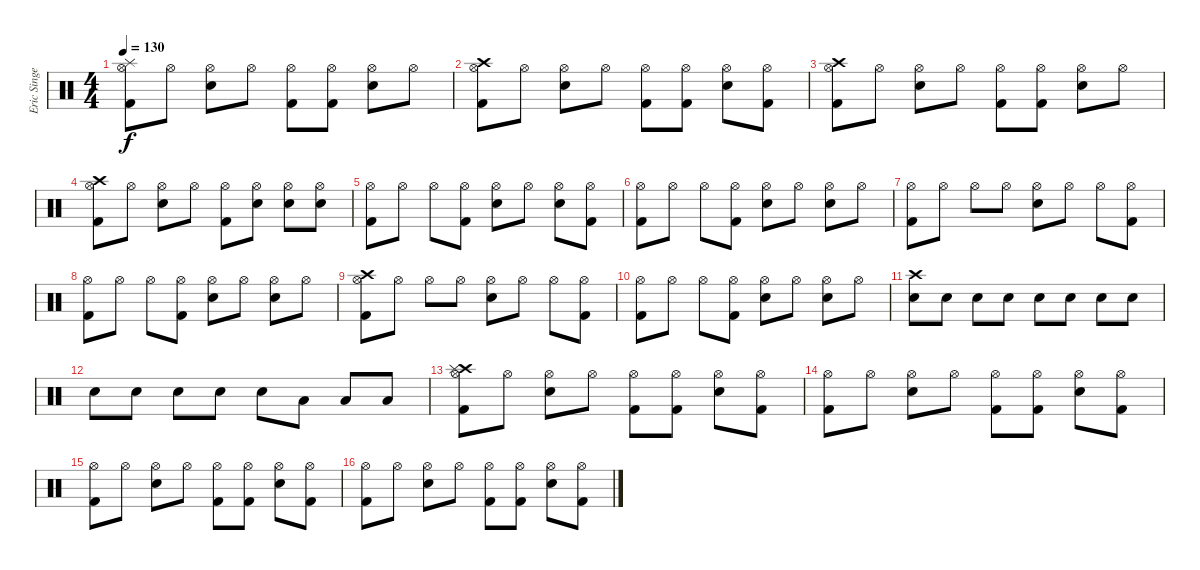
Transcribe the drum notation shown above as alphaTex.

\track ("Eric Singer" "Eric Singe") {instrument percussion}
\staff {score}
\articulation defaults
\ts (4 4)
\tempo 130
\clef neutral
\ks c
("Splash (hit)" "Kick (hit) 2" "Hi-Hat (open)").8{dy f} "Hi-Hat (open)".8 ("Electric Snare (hit)" "Hi-Hat (open)").8 "Hi-Hat (open)".8 ("Kick (hit) 2" "Hi-Hat (open)").8 ("Kick (hit) 2" "Hi-Hat (open)").8 ("Electric Snare (hit)" "Hi-Hat (open)").8 "Hi-Hat (open)".8 |
("Crash high (hit)" "Kick (hit) 2" "Hi-Hat (open)").8 "Hi-Hat (open)".8 ("Electric Snare (hit)" "Hi-Hat (open)").8 "Hi-Hat (open)".8 ("Kick (hit) 2" "Hi-Hat (open)").8 ("Kick (hit) 2" "Hi-Hat (open)").8 ("Electric Snare (hit)" "Hi-Hat (open)").8 ("Kick (hit) 2" "Hi-Hat (open)").8 |
("Crash high (hit)" "Kick (hit) 2" "Hi-Hat (open)").8 "Hi-Hat (open)".8 ("Electric Snare (hit)" "Hi-Hat (open)").8 "Hi-Hat (open)".8 ("Kick (hit) 2" "Hi-Hat (open)").8 ("Kick (hit) 2" "Hi-Hat (open)").8 ("Electric Snare (hit)" "Hi-Hat (open)").8 "Hi-Hat (open)".8 |
("Crash high (hit)" "Kick (hit) 2" "Hi-Hat (open)").8 "Hi-Hat (open)".8 ("Electric Snare (hit)" "Hi-Hat (open)").8 "Hi-Hat (open)".8 ("Kick (hit) 2" "Hi-Hat (open)").8 ("Electric Snare (hit)" "Hi-Hat (open)").8 ("Electric Snare (hit)" "Hi-Hat (open)").8 ("Electric Snare (hit)" "Hi-Hat (open)").8 |
("Kick (hit) 2" "Hi-Hat (open)").8 "Hi-Hat (open)".8 "Hi-Hat (open)".8 ("Kick (hit) 2" "Hi-Hat (open)").8 ("Electric Snare (hit)" "Hi-Hat (open)").8 "Hi-Hat (open)".8 ("Electric Snare (hit)" "Hi-Hat (open)").8 ("Kick (hit) 2" "Hi-Hat (open)").8 |
("Kick (hit) 2" "Hi-Hat (open)").8 "Hi-Hat (open)".8 "Hi-Hat (open)".8 ("Kick (hit) 2" "Hi-Hat (open)").8 ("Electric Snare (hit)" "Hi-Hat (open)").8 "Hi-Hat (open)".8 ("Electric Snare (hit)" "Hi-Hat (open)").8 "Hi-Hat (open)".8 |
("Kick (hit) 2" "Hi-Hat (open)").8 "Hi-Hat (open)".8 "Hi-Hat (open)".8 "Hi-Hat (open)".8 ("Electric Snare (hit)" "Hi-Hat (open)").8 "Hi-Hat (open)".8 "Hi-Hat (open)".8 ("Kick (hit) 2" "Hi-Hat (open)").8 |
("Kick (hit) 2" "Hi-Hat (open)").8 "Hi-Hat (open)".8 "Hi-Hat (open)".8 ("Kick (hit) 2" "Hi-Hat (open)").8 ("Electric Snare (hit)" "Hi-Hat (open)").8 "Hi-Hat (open)".8 ("Electric Snare (hit)" "Hi-Hat (open)").8 "Hi-Hat (open)".8 |
("Kick (hit) 2" "Hi-Hat (open)" "Crash high (hit)").8 "Hi-Hat (open)".8 "Hi-Hat (open)".8 "Hi-Hat (open)".8 ("Electric Snare (hit)" "Hi-Hat (open)").8 "Hi-Hat (open)".8 "Hi-Hat (open)".8 ("Kick (hit) 2" "Hi-Hat (open)").8 |
("Kick (hit) 2" "Hi-Hat (open)").8 "Hi-Hat (open)".8 "Hi-Hat (open)".8 ("Kick (hit) 2" "Hi-Hat (open)").8 ("Electric Snare (hit)" "Hi-Hat (open)").8 "Hi-Hat (open)".8 ("Electric Snare (hit)" "Hi-Hat (open)").8 "Hi-Hat (open)".8 |
("Electric Snare (hit)" "Crash high (hit)").8{volume 6} "Electric Snare (hit)".8{volume 8} "Electric Snare (hit)".8{volume 11} "Electric Snare (hit)".8{volume 14} "Electric Snare (hit)".8{volume 16} "Electric Snare (hit)".8 "Electric Snare (hit)".8 "Electric Snare (hit)".8 |
"Electric Snare (hit)".8 "Electric Snare (hit)".8 "Electric Snare (hit)".8 "Electric Snare (hit)".8 "Electric Snare (hit)".8 "Low Floor Tom (hit)".8 "Low Floor Tom (hit)".8 "Low Floor Tom (hit)".8 |
("Kick (hit) 2" "Hi-Hat (open)" "Crash high (hit)" "Splash (hit)").8 "Hi-Hat (open)".8 ("Electric Snare (hit)" "Hi-Hat (open)").8 "Hi-Hat (open)".8 ("Kick (hit) 2" "Hi-Hat (open)").8 ("Kick (hit) 2" "Hi-Hat (open)").8 ("Electric Snare (hit)" "Hi-Hat (open)").8 ("Kick (hit) 2" "Hi-Hat (open)").8 |
("Kick (hit) 2" "Hi-Hat (open)").8 "Hi-Hat (open)".8 ("Electric Snare (hit)" "Hi-Hat (open)").8 "Hi-Hat (open)".8 ("Kick (hit) 2" "Hi-Hat (open)").8 ("Kick (hit) 2" "Hi-Hat (open)").8 ("Electric Snare (hit)" "Hi-Hat (open)").8 ("Kick (hit) 2" "Hi-Hat (open)").8 |
("Kick (hit) 2" "Hi-Hat (open)").8 "Hi-Hat (open)".8 ("Electric Snare (hit)" "Hi-Hat (open)").8 "Hi-Hat (open)".8 ("Kick (hit) 2" "Hi-Hat (open)").8 ("Kick (hit) 2" "Hi-Hat (open)").8 ("Electric Snare (hit)" "Hi-Hat (open)").8 ("Kick (hit) 2" "Hi-Hat (open)").8 |
("Kick (hit) 2" "Hi-Hat (open)").8 "Hi-Hat (open)".8 ("Electric Snare (hit)" "Hi-Hat (open)").8 "Hi-Hat (open)".8 ("Kick (hit) 2" "Hi-Hat (open)").8 ("Kick (hit) 2" "Hi-Hat (open)").8 ("Electric Snare (hit)" "Hi-Hat (open)").8 ("Kick (hit) 2" "Hi-Hat (open)").8
